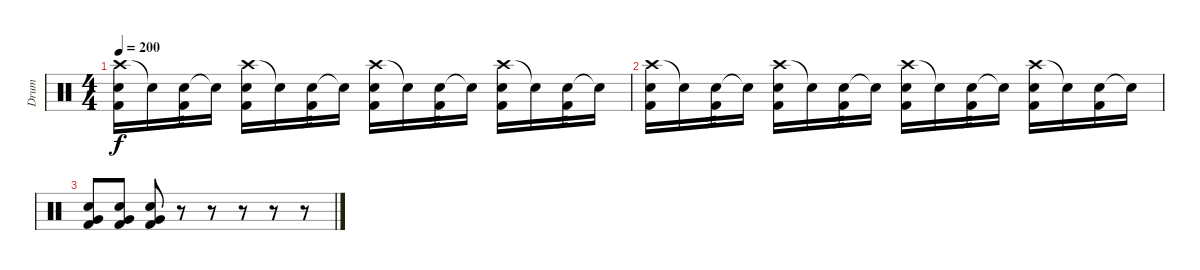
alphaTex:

\track ("Drum" "Drum") {instrument percussion}
\staff {score}
\articulation defaults
\ts (4 4)
\tempo 200
\clef neutral
\ks c
("Crash high (hit)" "Snare (hit) 2" "Kick (hit) 2").16{dy f} "Snare (hit)"{t}.16 ("Snare (hit) 2" "Kick (hit) 2").16{tp 2} "Snare (hit)"{t}.16 ("Crash high (hit)" "Snare (hit) 2" "Kick (hit) 2").16 "Snare (hit)"{t}.16 ("Snare (hit) 2" "Kick (hit) 2").16{tp 2} "Snare (hit)"{t}.16 ("Crash high (hit)" "Snare (hit) 2" "Kick (hit) 2").16 "Snare (hit)"{t}.16 ("Snare (hit) 2" "Kick (hit) 2").16{tp 2} "Snare (hit)"{t}.16 ("Crash high (hit)" "Snare (hit) 2" "Kick (hit) 2").16 "Snare (hit)"{t}.16 ("Snare (hit) 2" "Kick (hit) 2").16{tp 2} "Snare (hit)"{t}.16 |
("Crash high (hit)" "Snare (hit) 2" "Kick (hit) 2").16 "Snare (hit)"{t}.16 ("Snare (hit) 2" "Kick (hit) 2").16{tp 2} "Snare (hit)"{t}.16 ("Crash high (hit)" "Snare (hit) 2" "Kick (hit) 2").16 "Snare (hit)"{t}.16 ("Snare (hit) 2" "Kick (hit) 2").16{tp 2} "Snare (hit)"{t}.16 ("Crash high (hit)" "Snare (hit) 2" "Kick (hit) 2").16 "Snare (hit)"{t}.16 ("Snare (hit) 2" "Kick (hit) 2").16{tp 2} "Snare (hit)"{t}.16 ("Crash high (hit)" "Snare (hit) 2" "Kick (hit) 2").16 "Snare (hit)"{t}.16 ("Snare (hit) 2" "Kick (hit) 2").16 "Snare (hit)"{t}.16 |
("Very Low Tom (hit)" "Snare (hit) 2" "Kick (hit) 2").8 ("Very Low Tom (hit)" "Snare (hit) 2" "Kick (hit) 2").8 ("Very Low Tom (hit)" "Snare (hit) 2" "Kick (hit) 2").8 r.8 r.8 r.8 r.8 r.8
